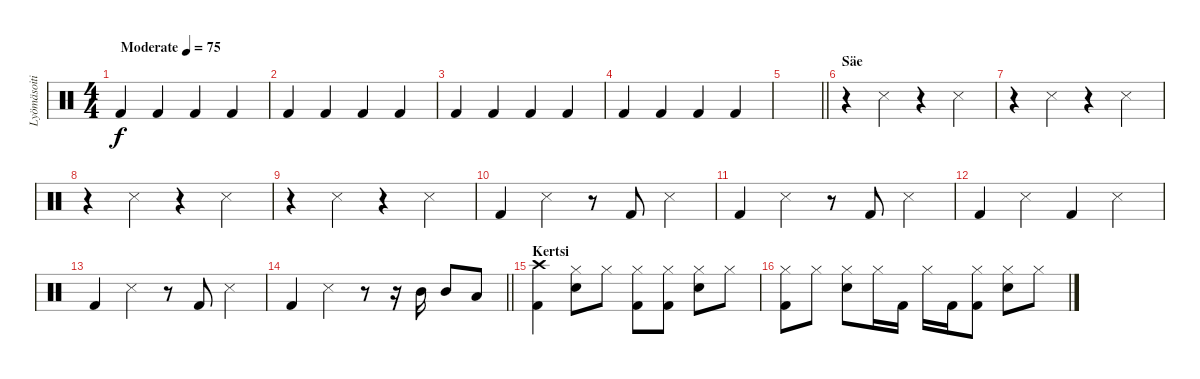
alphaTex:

\track ("Lyömäsoitin" "Lyömäsoiti") {instrument percussion}
\staff {score}
\articulation defaults
\ts (4 4)
\tempo (75 "Moderate")
\clef neutral
\ks c "Kick (hit) 2".4{dy f} "Kick (hit) 2".4 "Kick (hit) 2".4 "Kick (hit) 2".4
|
"Kick (hit) 2".4 "Kick (hit) 2".4 "Kick (hit) 2".4 "Kick (hit) 2".4 |
"Kick (hit) 2".4 "Kick (hit) 2".4 "Kick (hit) 2".4 "Kick (hit) 2".4 |
"Kick (hit) 2".4 "Kick (hit) 2".4 "Kick (hit) 2".4 "Kick (hit) 2".4 |
\barLineRight lightlight
|
\section ("" "Säe")
r.4 "Snare (side stick) 3".4 r.4 "Snare (side stick) 3".4 |
r.4 "Snare (side stick) 3".4 r.4 "Snare (side stick) 3".4 |
r.4 "Snare (side stick) 3".4 r.4 "Snare (side stick) 3".4 |
r.4 "Snare (side stick) 3".4 r.4 "Snare (side stick) 3".4 |
"Kick (hit) 2".4 "Snare (side stick) 3".4 r.8 "Kick (hit) 2".8 "Snare (side stick) 3".4 |
"Kick (hit) 2".4 "Snare (side stick) 3".4 r.8 "Kick (hit) 2".8 "Snare (side stick) 3".4 |
"Kick (hit) 2".4 "Snare (side stick) 3".4 "Kick (hit) 2".4 "Snare (side stick) 3".4 |
"Kick (hit) 2".4 "Snare (side stick) 3".4 r.8 "Kick (hit) 2".8 "Snare (side stick) 3".4 |
\barLineRight lightlight "Kick (hit) 2".4 "Snare (side stick) 3".4
r.8 r.16 "Mid Tom (hit)".16 "Mid Tom (hit)".8 "Low Tom (hit)".8 |
\section ("" "Kertsi")
("Crash high (hit)" "Kick (hit) 2").4 ("Hi-Hat (closed)" "Snare (hit) 2").8 "Hi-Hat (closed)".8 ("Hi-Hat (closed)" "Kick (hit) 2").8 ("Hi-Hat (closed)" "Kick (hit) 2").8 ("Hi-Hat (closed)" "Snare (hit) 2").8 "Hi-Hat (closed)".8 |
("Hi-Hat (closed)" "Kick (hit) 2").8 "Hi-Hat (closed)".8 ("Hi-Hat (closed)" "Snare (hit) 2").8 "Hi-Hat (closed)".16 "Kick (hit) 2".16 "Hi-Hat (closed)".16 "Kick (hit) 2".16 ("Hi-Hat (closed)" "Kick (hit) 2").8 ("Hi-Hat (closed)" "Snare (hit) 2").8 "Hi-Hat (closed)".8
